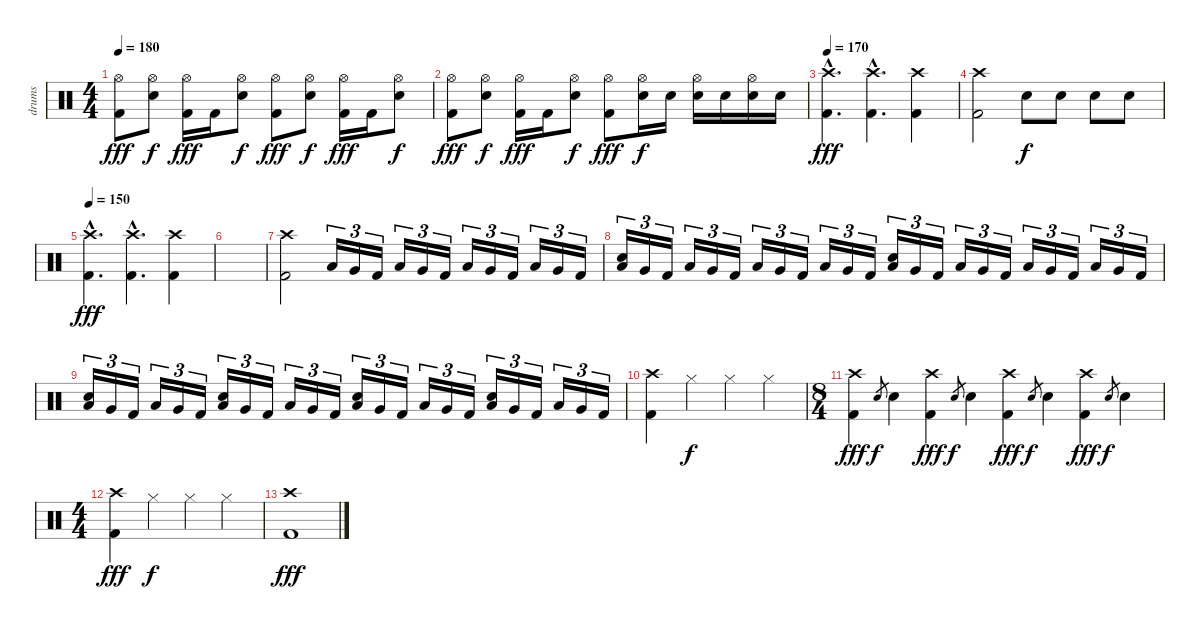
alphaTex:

\track ("drums" "drums") {instrument percussion}
\staff {score}
\articulation defaults
\ts (4 4)
\tempo 180
\clef neutral
\ks c
("Hi-Hat (open)" "Kick (hit) 2").8{dy fff} ("Hi-Hat (open)" "Snare (hit) 2").8{dy f} ("Hi-Hat (open)" "Kick (hit) 2").16{dy fff} "Kick (hit) 2".16 ("Hi-Hat (open)" "Snare (hit) 2").8{dy f} ("Hi-Hat (open)" "Kick (hit) 2").8{dy fff} ("Hi-Hat (open)" "Snare (hit) 2").8{dy f} ("Hi-Hat (open)" "Kick (hit) 2").16{dy fff} "Kick (hit) 2".16 ("Hi-Hat (open)" "Snare (hit) 2").8{dy f} |
("Hi-Hat (open)" "Kick (hit) 2").8{dy fff} ("Hi-Hat (open)" "Snare (hit) 2").8{dy f} ("Hi-Hat (open)" "Kick (hit) 2").16{dy fff} "Kick (hit) 2".16 ("Hi-Hat (open)" "Snare (hit) 2").8{dy f} ("Hi-Hat (open)" "Kick (hit) 2").8{dy fff} ("Hi-Hat (open)" "Snare (hit) 2").16{dy f} "Snare (hit) 2".16 ("Hi-Hat (open)" "Snare (hit) 2").16 "Snare (hit) 2".16 ("Hi-Hat (open)" "Snare (hit) 2").16 "Snare (hit) 2".16 |
\tempo 170
("Crash high (hit)"{hac} "Kick (hit) 2"{hac}).4{d dy fff} ("Crash high (hit)"{hac} "Kick (hit) 2"{hac}).4{d} ("Crash high (hit)" "Kick (hit) 2").4 |
("Crash high (hit)" "Kick (hit) 2").2 "Snare (hit) 2".8{dy f} "Snare (hit) 2".8 "Snare (hit) 2".8 "Snare (hit) 2".8 |
\tempo 150
("Crash high (hit)"{hac} "Kick (hit) 2"{hac}).4{d dy fff} ("Crash high (hit)"{hac} "Kick (hit) 2"{hac}).4{d} ("Crash high (hit)" "Kick (hit) 2").4 |
|
("Crash high (hit)" "Kick (hit) 2").2 "Low Tom (hit)".16{tu (3 2)} "Very Low Tom (hit)".16{tu (3 2)} "Kick (hit) 2".16{tu (3 2)} "Low Tom (hit)".16{tu (3 2)} "Very Low Tom (hit)".16{tu (3 2)} "Kick (hit) 2".16{tu (3 2)} "Low Tom (hit)".16{tu (3 2)} "Very Low Tom (hit)".16{tu (3 2)} "Kick (hit) 2".16{tu (3 2)} "Low Tom (hit)".16{tu (3 2)} "Very Low Tom (hit)".16{tu (3 2)} "Kick (hit) 2".16{tu (3 2)} |
("Snare (hit) 2" "Low Tom (hit)").16{tu (3 2)} "Very Low Tom (hit)".16{tu (3 2)} "Kick (hit) 2".16{tu (3 2)} "Low Tom (hit)".16{tu (3 2)} "Very Low Tom (hit)".16{tu (3 2)} "Kick (hit) 2".16{tu (3 2)} "Low Tom (hit)".16{tu (3 2)} "Very Low Tom (hit)".16{tu (3 2)} "Kick (hit) 2".16{tu (3 2)} "Low Tom (hit)".16{tu (3 2)} "Very Low Tom (hit)".16{tu (3 2)} "Kick (hit) 2".16{tu (3 2)} ("Snare (hit) 2" "Low Tom (hit)").16{tu (3 2)} "Very Low Tom (hit)".16{tu (3 2)} "Kick (hit) 2".16{tu (3 2)} "Low Tom (hit)".16{tu (3 2)} "Very Low Tom (hit)".16{tu (3 2)} "Kick (hit) 2".16{tu (3 2)} "Low Tom (hit)".16{tu (3 2)} "Very Low Tom (hit)".16{tu (3 2)} "Kick (hit) 2".16{tu (3 2)} "Low Tom (hit)".16{tu (3 2)} "Very Low Tom (hit)".16{tu (3 2)} "Kick (hit) 2".16{tu (3 2)} |
("Snare (hit) 2" "Low Tom (hit)").16{tu (3 2)} "Very Low Tom (hit)".16{tu (3 2)} "Kick (hit) 2".16{tu (3 2)} "Low Tom (hit)".16{tu (3 2)} "Very Low Tom (hit)".16{tu (3 2)} "Kick (hit) 2".16{tu (3 2)} ("Snare (hit) 2" "Low Tom (hit)").16{tu (3 2)} "Very Low Tom (hit)".16{tu (3 2)} "Kick (hit) 2".16{tu (3 2)} "Low Tom (hit)".16{tu (3 2)} "Very Low Tom (hit)".16{tu (3 2)} "Kick (hit) 2".16{tu (3 2)} ("Snare (hit) 2" "Low Tom (hit)").16{tu (3 2)} "Very Low Tom (hit)".16{tu (3 2)} "Kick (hit) 2".16{tu (3 2)} "Low Tom (hit)".16{tu (3 2)} "Very Low Tom (hit)".16{tu (3 2)} "Kick (hit) 2".16{tu (3 2)} ("Snare (hit) 2" "Low Tom (hit)").16{tu (3 2)} "Very Low Tom (hit)".16{tu (3 2)} "Kick (hit) 2".16{tu (3 2)} "Low Tom (hit)".16{tu (3 2)} "Very Low Tom (hit)".16{tu (3 2)} "Kick (hit) 2".16{tu (3 2)} |
("Crash high (hit)" "Kick (hit) 2").4 "Hi-Hat (closed)".4{dy f} "Hi-Hat (closed)".4 "Hi-Hat (closed)".4 |
\ts (8 4)
("Crash high (hit)" "Kick (hit) 2").4{dy fff} "Snare (hit) 2".8{gr dy f} "Snare (hit) 2".4 ("Crash high (hit)" "Kick (hit) 2").4{dy fff} "Snare (hit) 2".8{gr dy f} "Snare (hit) 2".4 ("Crash high (hit)" "Kick (hit) 2").4{dy fff} "Snare (hit) 2".8{gr dy f} "Snare (hit) 2".4 ("Crash high (hit)" "Kick (hit) 2").4{dy fff} "Snare (hit) 2".8{gr dy f} "Snare (hit) 2".4 |
\ts (4 4)
("Crash high (hit)" "Kick (hit) 2").4{dy fff} "Hi-Hat (closed)".4{dy f} "Hi-Hat (closed)".4 "Hi-Hat (closed)".4 |
("Crash high (hit)" "Kick (hit) 2").1{dy fff}
